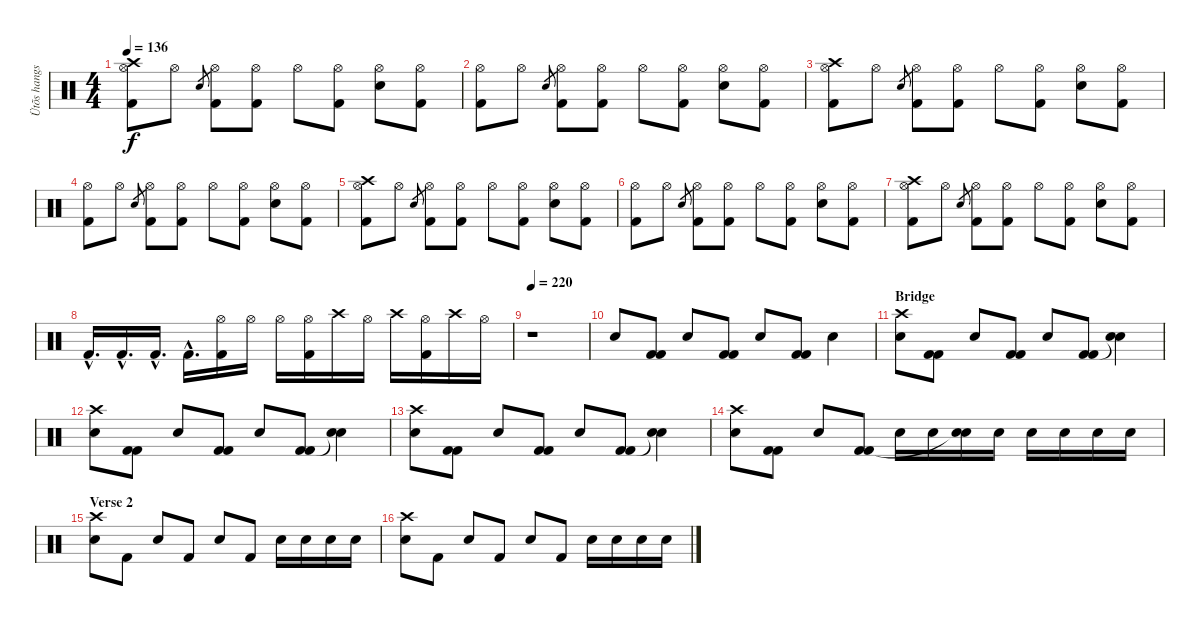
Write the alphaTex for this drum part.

\track ("Ütõs hangszer" "Ütõs hangs") {instrument percussion}
\staff {score}
\articulation defaults
\ts (4 4)
\tempo 136
\clef neutral
\ks c
("Hi-Hat (open)" "Kick (hit) 2" "Crash high (hit)").8{dy f} "Hi-Hat (open)".8 "Snare (hit) 2"{h}.8{gr} ("Hi-Hat (open)" "Kick (hit) 2").8 ("Hi-Hat (open)" "Kick (hit) 2").8 "Hi-Hat (open)".8 ("Hi-Hat (open)" "Kick (hit) 2").8 ("Hi-Hat (open)" "Snare (hit) 2").8 ("Hi-Hat (open)" "Kick (hit) 2").8 |
("Hi-Hat (open)" "Kick (hit) 2").8 "Hi-Hat (open)".8 "Snare (hit) 2"{h}.8{gr} ("Hi-Hat (open)" "Kick (hit) 2").8 ("Hi-Hat (open)" "Kick (hit) 2").8 "Hi-Hat (open)".8 ("Hi-Hat (open)" "Kick (hit) 2").8 ("Hi-Hat (open)" "Snare (hit) 2").8 ("Hi-Hat (open)" "Kick (hit) 2").8 |
("Hi-Hat (open)" "Kick (hit) 2" "Crash high (hit)").8 "Hi-Hat (open)".8 "Snare (hit) 2"{h}.8{gr} ("Hi-Hat (open)" "Kick (hit) 2").8 ("Hi-Hat (open)" "Kick (hit) 2").8 "Hi-Hat (open)".8 ("Hi-Hat (open)" "Kick (hit) 2").8 ("Hi-Hat (open)" "Snare (hit) 2").8 ("Hi-Hat (open)" "Kick (hit) 2").8 |
("Hi-Hat (open)" "Kick (hit) 2").8 "Hi-Hat (open)".8 "Snare (hit) 2"{h}.8{gr} ("Hi-Hat (open)" "Kick (hit) 2").8 ("Hi-Hat (open)" "Kick (hit) 2").8 "Hi-Hat (open)".8 ("Hi-Hat (open)" "Kick (hit) 2").8 ("Hi-Hat (open)" "Snare (hit) 2").8 ("Hi-Hat (open)" "Kick (hit) 2").8 |
("Hi-Hat (open)" "Kick (hit) 2" "Crash high (hit)").8 "Hi-Hat (open)".8 "Snare (hit) 2"{h}.8{gr} ("Hi-Hat (open)" "Kick (hit) 2").8 ("Hi-Hat (open)" "Kick (hit) 2").8 "Hi-Hat (open)".8 ("Hi-Hat (open)" "Kick (hit) 2").8 ("Hi-Hat (open)" "Snare (hit) 2").8 ("Hi-Hat (open)" "Kick (hit) 2").8 |
("Hi-Hat (open)" "Kick (hit) 2").8 "Hi-Hat (open)".8 "Snare (hit) 2"{h}.8{gr} ("Hi-Hat (open)" "Kick (hit) 2").8 ("Hi-Hat (open)" "Kick (hit) 2").8 "Hi-Hat (open)".8 ("Hi-Hat (open)" "Kick (hit) 2").8 ("Hi-Hat (open)" "Snare (hit) 2").8 ("Hi-Hat (open)" "Kick (hit) 2").8 |
("Hi-Hat (open)" "Kick (hit) 2" "Crash high (hit)").8 "Hi-Hat (open)".8 "Snare (hit) 2"{h}.8{gr} ("Hi-Hat (open)" "Kick (hit) 2").8 ("Hi-Hat (open)" "Kick (hit) 2").8 "Hi-Hat (open)".8 ("Hi-Hat (open)" "Kick (hit) 2").8 ("Hi-Hat (open)" "Snare (hit) 2").8 ("Hi-Hat (open)" "Kick (hit) 2").8 |
"Kick (hit) 2"{hac}.16{d} "Kick (hit) 2"{hac}.16{d} "Kick (hit) 2"{hac}.16{d} "Kick (hit) 2"{hac}.16{d} ("Hi-Hat (open)" "Kick (hit) 2").16 "Hi-Hat (open)".16 "Hi-Hat (open)".16 ("Hi-Hat (open)" "Kick (hit) 2").16 "Crash high (hit)".16 "Hi-Hat (open)".16 "Crash high (hit)".16 ("Hi-Hat (open)" "Kick (hit) 2").16 "Crash high (hit)".16 "Hi-Hat (open)".16 |
\tempo 220
r.1 |
"Snare (hit) 2".8 ("Kick (hit) 2" "Kick (hit) 2").8 "Snare (hit) 2".8 ("Kick (hit) 2" "Kick (hit) 2").8 "Snare (hit) 2".8 ("Kick (hit) 2" "Kick (hit) 2").8 "Snare (hit) 2".4 |
\section ("" "Bridge")
("Snare (hit) 2" "Crash high (hit)").8 ("Kick (hit) 2" "Kick (hit) 2").8 "Snare (hit) 2".8 ("Kick (hit) 2" "Kick (hit) 2").8 "Snare (hit) 2".8 ("Kick (hit) 2" "Kick (hit) 2").8 ("Snare (hit) 2" "Snare (hit)"{t}).4 |
("Snare (hit) 2" "Crash high (hit)").8 ("Kick (hit) 2" "Kick (hit) 2").8 "Snare (hit) 2".8 ("Kick (hit) 2" "Kick (hit) 2").8 "Snare (hit) 2".8 ("Kick (hit) 2" "Kick (hit) 2").8 ("Snare (hit) 2" "Snare (hit)"{t}).4 |
("Snare (hit) 2" "Crash high (hit)").8 ("Kick (hit) 2" "Kick (hit) 2").8 "Snare (hit) 2".8 ("Kick (hit) 2" "Kick (hit) 2").8 "Snare (hit) 2".8 ("Kick (hit) 2" "Kick (hit) 2").8 ("Snare (hit) 2" "Snare (hit)"{t}).4 |
("Snare (hit) 2" "Crash high (hit)").8 ("Kick (hit) 2" "Kick (hit) 2").8 "Snare (hit) 2".8 ("Kick (hit) 2" "Kick (hit) 2").8 "Snare (hit) 2".16 "Snare (hit) 2".16 ("Snare (hit) 2" "Snare (hit)"{t}).16 "Snare (hit) 2".16 "Snare (hit) 2".16 "Snare (hit) 2".16 "Snare (hit) 2".16 "Snare (hit) 2".16 |
\section ("" "Verse 2")
("Snare (hit) 2" "Crash high (hit)").8 "Kick (hit) 2".8 "Snare (hit) 2".8 "Kick (hit) 2".8 "Snare (hit) 2".8 "Kick (hit) 2".8 "Snare (hit) 2".16 "Snare (hit) 2".16 "Snare (hit) 2".16 "Snare (hit) 2".16 |
("Snare (hit) 2" "Crash high (hit)").8 "Kick (hit) 2".8 "Snare (hit) 2".8 "Kick (hit) 2".8 "Snare (hit) 2".8 "Kick (hit) 2".8 "Snare (hit) 2".16 "Snare (hit) 2".16 "Snare (hit) 2".16 "Snare (hit) 2".16
